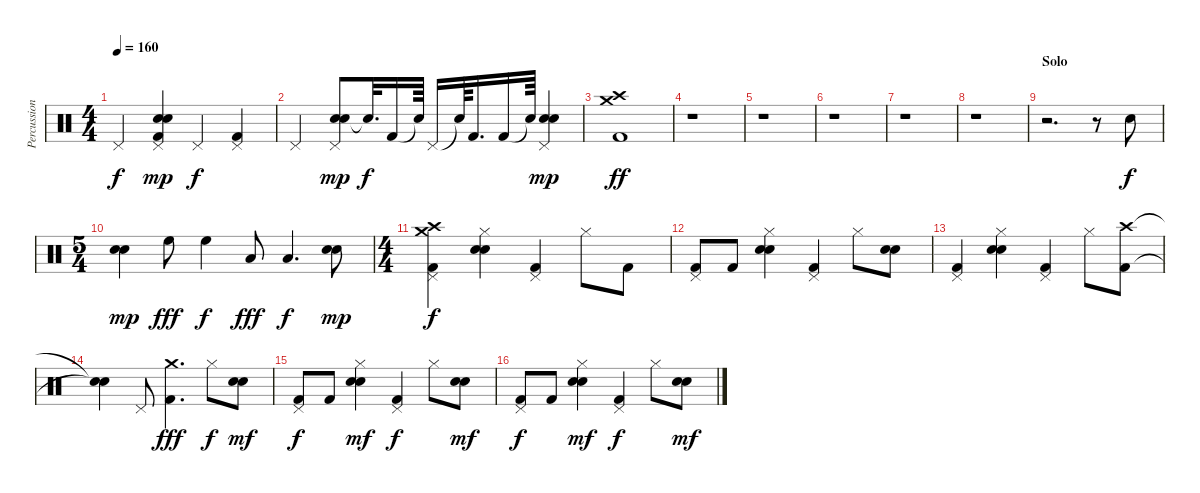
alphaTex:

\track ("Percussion" "Percussion") {instrument percussion}
\staff {score}
\articulation defaults
\ts (4 4)
\tempo 160
\clef neutral
\ks c "Pedal Hi-Hat (hit)".4{dy f}
("Snare (hit) 2" "Pedal Hi-Hat (hit)" "Kick (hit) 2" "Electric Snare (hit)").4{dy mp} "Pedal Hi-Hat (hit)".4{dy f} ("Kick (hit) 2" "Pedal Hi-Hat (hit)").4 |
"Pedal Hi-Hat (hit)".4 ("Snare (hit) 2" "Electric Snare (hit)" "Pedal Hi-Hat (hit)").8{dy mp} "Snare (hit)"{t}.32{d dy f} "Kick (hit) 2".16 "Snare (hit)"{t}.64 "Pedal Hi-Hat (hit)".16 "Snare (hit)"{t}.64 "Kick (hit) 2".16{d} "Kick (hit) 2".16 "Snare (hit)"{t}.64 ("Snare (hit) 2" "Electric Snare (hit)" "Pedal Hi-Hat (hit)").4{dy mp} |
("Kick (hit) 2" "Crash high (hit)" "Crash medium (hit)").1{dy ff} |
r.1 |
r.1 |
r.1 |
r.1 |
r.1 |
\section ("" "Solo")
r.2{d} r.8 "Snare (hit) 2".8{dy f volume 12} |
\ts (5 4)
("Snare (hit) 2" "Electric Snare (hit)").4{dy mp} "High Floor Tom (hit)".8{dy fff} "High Floor Tom (hit)".4{dy f} "Low Tom (hit)".8{dy fff} "Low Tom (hit)".4{d dy f} ("Snare (hit) 2" "Electric Snare (hit)").8{dy mp} |
\ts (4 4)
("Crash high (hit)" "Kick (hit) 2" "Pedal Hi-Hat (hit)" "Crash medium (hit)").4{dy f} ("Hi-Hat (closed)" "Snare (hit) 2" "Electric Snare (hit)").4 ("Pedal Hi-Hat (hit)" "Kick (hit) 2").4 "Hi-Hat (closed)".8 "Kick (hit) 2".8 |
("Pedal Hi-Hat (hit)" "Kick (hit) 2").8 "Kick (hit) 2".8 ("Hi-Hat (closed)" "Snare (hit) 2" "Electric Snare (hit)").4 ("Pedal Hi-Hat (hit)" "Kick (hit) 2").4 "Hi-Hat (closed)".8 ("Snare (hit) 2" "Electric Snare (hit)").8 |
("Kick (hit) 2" "Pedal Hi-Hat (hit)").4 ("Snare (hit) 2" "Hi-Hat (closed)" "Electric Snare (hit)").4 ("Kick (hit) 2" "Pedal Hi-Hat (hit)").4 "Hi-Hat (closed)".8 ("Crash high (hit)" "Kick (hit) 2").8 |
("Snare (hit)"{t} "Snare (hit)"{t}).4 "Pedal Hi-Hat (hit)".8 ("Crash medium (hit)" "Kick (hit) 2").4{d dy fff} "Hi-Hat (closed)".8{dy f} ("Snare (hit) 2" "Electric Snare (hit)").8{dy mf} |
("Pedal Hi-Hat (hit)" "Kick (hit) 2").8{dy f} "Kick (hit) 2".8 ("Hi-Hat (closed)" "Snare (hit) 2" "Electric Snare (hit)").4{dy mf} ("Pedal Hi-Hat (hit)" "Kick (hit) 2").4{dy f} "Hi-Hat (closed)".8 ("Snare (hit) 2" "Electric Snare (hit)").8{dy mf} |
("Pedal Hi-Hat (hit)" "Kick (hit) 2").8{dy f} "Kick (hit) 2".8 ("Hi-Hat (closed)" "Snare (hit) 2" "Electric Snare (hit)").4{dy mf} ("Pedal Hi-Hat (hit)" "Kick (hit) 2").4{dy f} "Hi-Hat (closed)".8 ("Snare (hit) 2" "Electric Snare (hit)").8{dy mf}
